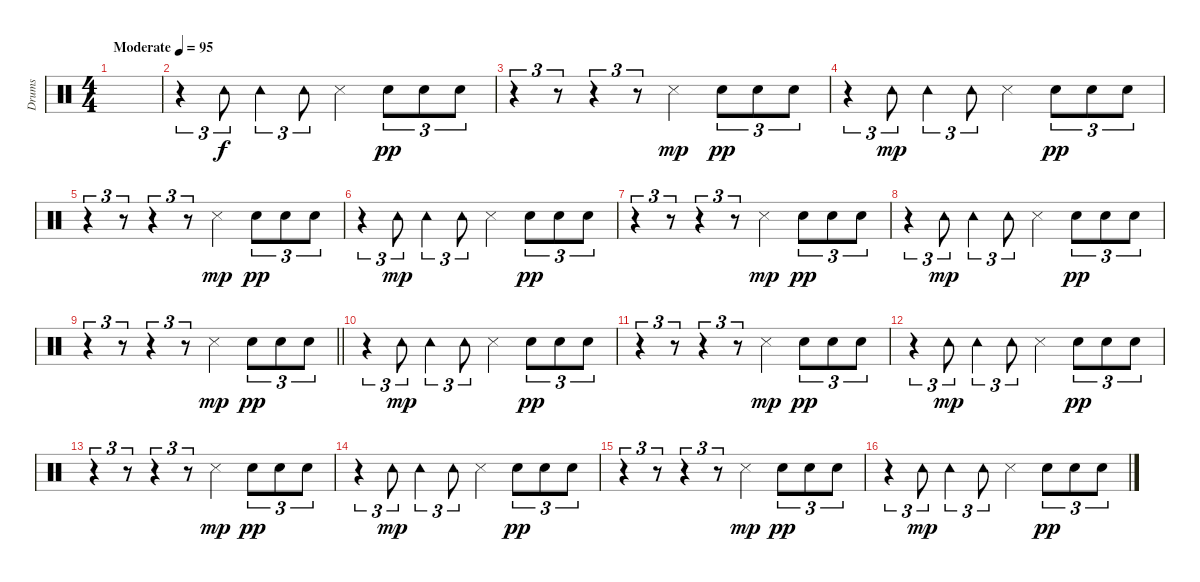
\track ("Drums" "Drums") {instrument percussion}
\staff {score}
\articulation defaults
\ts (4 4)
\tempo (95 "Moderate")
\clef neutral
\ks aminor
|
r.4{tu (3 2)} "Tambourine (hit)".8{tu (3 2)} "Tambourine (hit)".4{tu (3 2)} "Tambourine (hit)".8{tu (3 2)} "Snare (side stick) 3".4 "Snare (hit) 2".8{tu (3 2) dy pp} "Snare (hit) 2".8{tu (3 2)} "Snare (hit) 2".8{tu (3 2)} |
r.4{tu (3 2)} r.8{tu (3 2)} r.4{tu (3 2)} r.8{tu (3 2)} "Snare (side stick) 3".4{dy mp} "Snare (hit) 2".8{tu (3 2) dy pp} "Snare (hit) 2".8{tu (3 2)} "Snare (hit) 2".8{tu (3 2)} |
r.4{tu (3 2)} "Tambourine (hit)".8{tu (3 2) dy mp} "Tambourine (hit)".4{tu (3 2)} "Tambourine (hit)".8{tu (3 2)} "Snare (side stick) 3".4 "Snare (hit) 2".8{tu (3 2) dy pp} "Snare (hit) 2".8{tu (3 2)} "Snare (hit) 2".8{tu (3 2)} |
r.4{tu (3 2)} r.8{tu (3 2)} r.4{tu (3 2)} r.8{tu (3 2)} "Snare (side stick) 3".4{dy mp} "Snare (hit) 2".8{tu (3 2) dy pp} "Snare (hit) 2".8{tu (3 2)} "Snare (hit) 2".8{tu (3 2)} |
r.4{tu (3 2)} "Tambourine (hit)".8{tu (3 2) dy mp} "Tambourine (hit)".4{tu (3 2)} "Tambourine (hit)".8{tu (3 2)} "Snare (side stick) 3".4 "Snare (hit) 2".8{tu (3 2) dy pp} "Snare (hit) 2".8{tu (3 2)} "Snare (hit) 2".8{tu (3 2)} |
r.4{tu (3 2)} r.8{tu (3 2)} r.4{tu (3 2)} r.8{tu (3 2)} "Snare (side stick) 3".4{dy mp} "Snare (hit) 2".8{tu (3 2) dy pp} "Snare (hit) 2".8{tu (3 2)} "Snare (hit) 2".8{tu (3 2)} |
r.4{tu (3 2)} "Tambourine (hit)".8{tu (3 2) dy mp} "Tambourine (hit)".4{tu (3 2)} "Tambourine (hit)".8{tu (3 2)} "Snare (side stick) 3".4 "Snare (hit) 2".8{tu (3 2) dy pp} "Snare (hit) 2".8{tu (3 2)} "Snare (hit) 2".8{tu (3 2)} |
\barLineRight lightlight
r.4{tu (3 2)} r.8{tu (3 2)} r.4{tu (3 2)} r.8{tu (3 2)} "Snare (side stick) 3".4{dy mp} "Snare (hit) 2".8{tu (3 2) dy pp} "Snare (hit) 2".8{tu (3 2)} "Snare (hit) 2".8{tu (3 2)} |
r.4{tu (3 2)} "Tambourine (hit)".8{tu (3 2) dy mp} "Tambourine (hit)".4{tu (3 2)} "Tambourine (hit)".8{tu (3 2)} "Snare (side stick) 3".4 "Snare (hit) 2".8{tu (3 2) dy pp} "Snare (hit) 2".8{tu (3 2)} "Snare (hit) 2".8{tu (3 2)} |
r.4{tu (3 2)} r.8{tu (3 2)} r.4{tu (3 2)} r.8{tu (3 2)} "Snare (side stick) 3".4{dy mp} "Snare (hit) 2".8{tu (3 2) dy pp} "Snare (hit) 2".8{tu (3 2)} "Snare (hit) 2".8{tu (3 2)} |
r.4{tu (3 2)} "Tambourine (hit)".8{tu (3 2) dy mp} "Tambourine (hit)".4{tu (3 2)} "Tambourine (hit)".8{tu (3 2)} "Snare (side stick) 3".4 "Snare (hit) 2".8{tu (3 2) dy pp} "Snare (hit) 2".8{tu (3 2)} "Snare (hit) 2".8{tu (3 2)} |
r.4{tu (3 2)} r.8{tu (3 2)} r.4{tu (3 2)} r.8{tu (3 2)} "Snare (side stick) 3".4{dy mp} "Snare (hit) 2".8{tu (3 2) dy pp} "Snare (hit) 2".8{tu (3 2)} "Snare (hit) 2".8{tu (3 2)} |
r.4{tu (3 2)} "Tambourine (hit)".8{tu (3 2) dy mp} "Tambourine (hit)".4{tu (3 2)} "Tambourine (hit)".8{tu (3 2)} "Snare (side stick) 3".4 "Snare (hit) 2".8{tu (3 2) dy pp} "Snare (hit) 2".8{tu (3 2)} "Snare (hit) 2".8{tu (3 2)} |
r.4{tu (3 2)} r.8{tu (3 2)} r.4{tu (3 2)} r.8{tu (3 2)} "Snare (side stick) 3".4{dy mp} "Snare (hit) 2".8{tu (3 2) dy pp} "Snare (hit) 2".8{tu (3 2)} "Snare (hit) 2".8{tu (3 2)} |
r.4{tu (3 2)} "Tambourine (hit)".8{tu (3 2) dy mp} "Tambourine (hit)".4{tu (3 2)} "Tambourine (hit)".8{tu (3 2)} "Snare (side stick) 3".4 "Snare (hit) 2".8{tu (3 2) dy pp} "Snare (hit) 2".8{tu (3 2)} "Snare (hit) 2".8{tu (3 2)}
